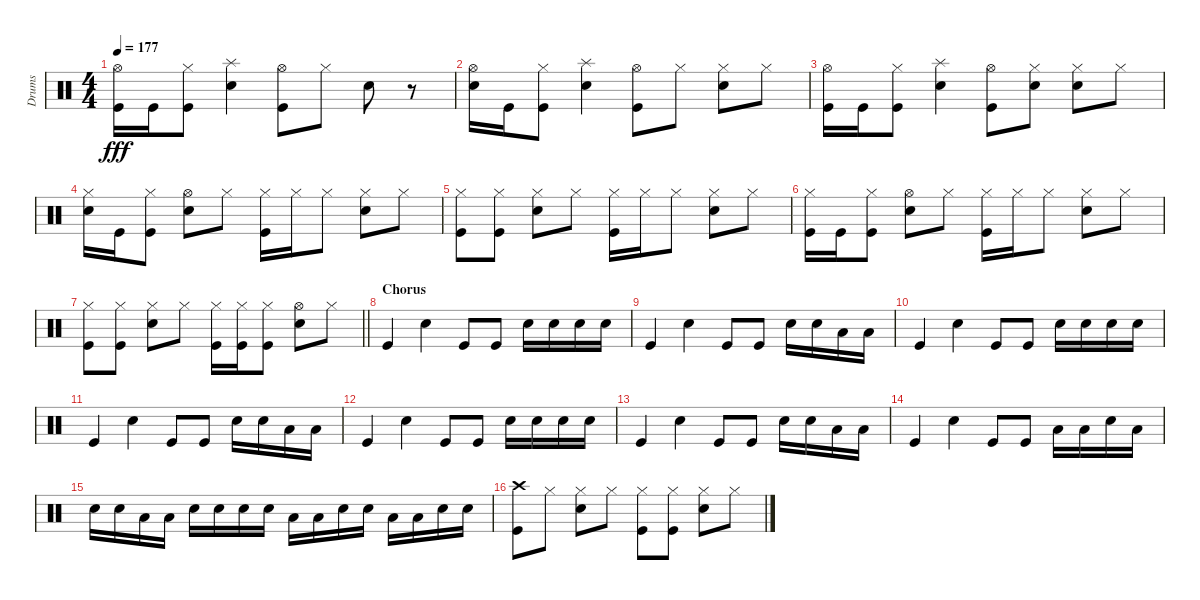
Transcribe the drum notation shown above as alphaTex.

\track ("Drums" "Drums") {instrument percussion}
\staff {score}
\articulation defaults
\ts (4 4)
\tempo 177
\clef neutral
\ks c
("Hi-Hat (open)" "Kick (hit)").16{dy fff} "Kick (hit)".16 ("Hi-Hat (closed)" "Kick (hit)").8 ("Splash (hit)" "Snare (hit) 2").4 ("Hi-Hat (open)" "Kick (hit)").8 "Hi-Hat (closed)".8 "Snare (hit) 2".8 r.8 |
("Hi-Hat (open)" "Snare (hit) 2").16 "Kick (hit)".16 ("Hi-Hat (closed)" "Kick (hit)").8 ("Splash (hit)" "Snare (hit) 2").4 ("Hi-Hat (open)" "Kick (hit)").8 "Hi-Hat (closed)".8 ("Hi-Hat (closed)" "Snare (hit) 2").8 "Hi-Hat (closed)".8 |
("Hi-Hat (open)" "Kick (hit)").16 "Kick (hit)".16 ("Hi-Hat (closed)" "Kick (hit)").8 ("Splash (hit)" "Snare (hit) 2").4 ("Hi-Hat (open)" "Kick (hit)").8 ("Hi-Hat (closed)" "Snare (hit) 2").8 ("Hi-Hat (closed)" "Snare (hit) 2").8 "Hi-Hat (closed)".8 |
("Hi-Hat (closed)" "Snare (hit) 2").16 "Kick (hit)".16 ("Hi-Hat (closed)" "Kick (hit)").8 ("Hi-Hat (open)" "Snare (hit) 2").8 "Hi-Hat (closed)".8 ("Hi-Hat (closed)" "Kick (hit)").16 "Hi-Hat (closed)".16 "Hi-Hat (closed)".8 ("Hi-Hat (closed)" "Snare (hit) 2").8 "Hi-Hat (closed)".8 |
("Hi-Hat (closed)" "Kick (hit)").8 ("Hi-Hat (closed)" "Kick (hit)").8 ("Hi-Hat (closed)" "Snare (hit) 2").8 "Hi-Hat (closed)".8 ("Hi-Hat (closed)" "Kick (hit)").16 "Hi-Hat (closed)".16 "Hi-Hat (closed)".8 ("Hi-Hat (closed)" "Snare (hit) 2").8 "Hi-Hat (closed)".8 |
("Hi-Hat (closed)" "Kick (hit)").16 "Kick (hit)".16 ("Hi-Hat (closed)" "Kick (hit)").8 ("Hi-Hat (open)" "Snare (hit) 2").8 "Hi-Hat (closed)".8 ("Hi-Hat (closed)" "Kick (hit)").16 "Hi-Hat (closed)".16 "Hi-Hat (closed)".8 ("Hi-Hat (closed)" "Snare (hit) 2").8 "Hi-Hat (closed)".8 |
\barLineRight lightlight
("Hi-Hat (closed)" "Kick (hit)").8 ("Hi-Hat (closed)" "Kick (hit)").8 ("Hi-Hat (closed)" "Snare (hit) 2").8 "Hi-Hat (closed)".8 ("Hi-Hat (closed)" "Kick (hit)").16 ("Hi-Hat (closed)" "Kick (hit)").16 ("Hi-Hat (closed)" "Kick (hit)").8 ("Hi-Hat (open)" "Snare (hit) 2").8 "Hi-Hat (closed)".8 |
\section ("" "Chorus")
"Kick (hit)".4 "Snare (hit) 2".4 "Kick (hit)".8 "Kick (hit)".8 "Snare (hit) 2".16 "Snare (hit) 2".16 "Snare (hit) 2".16 "Snare (hit) 2".16 |
"Kick (hit)".4 "Snare (hit) 2".4 "Kick (hit)".8 "Kick (hit)".8 "Snare (hit) 2".16 "Snare (hit) 2".16 "Low Tom (hit)".16 "Low Tom (hit)".16 |
"Kick (hit)".4 "Snare (hit) 2".4 "Kick (hit)".8 "Kick (hit)".8 "Snare (hit) 2".16 "Snare (hit) 2".16 "Snare (hit) 2".16 "Snare (hit) 2".16 |
"Kick (hit)".4 "Snare (hit) 2".4 "Kick (hit)".8 "Kick (hit)".8 "Snare (hit) 2".16 "Snare (hit) 2".16 "Low Tom (hit)".16 "Low Tom (hit)".16 |
"Kick (hit)".4 "Snare (hit) 2".4 "Kick (hit)".8 "Kick (hit)".8 "Snare (hit) 2".16 "Snare (hit) 2".16 "Snare (hit) 2".16 "Snare (hit) 2".16 |
"Kick (hit)".4 "Snare (hit) 2".4 "Kick (hit)".8 "Kick (hit)".8 "Snare (hit) 2".16 "Snare (hit) 2".16 "Low Tom (hit)".16 "Low Tom (hit)".16 |
"Kick (hit)".4 "Snare (hit) 2".4 "Kick (hit)".8 "Kick (hit)".8 "Low Tom (hit)".16 "Low Tom (hit)".16 "Snare (hit) 2".16 "Low Tom (hit)".16 |
"Snare (hit) 2".16 "Snare (hit) 2".16 "Low Tom (hit)".16 "Low Tom (hit)".16 "Snare (hit) 2".16 "Snare (hit) 2".16 "Snare (hit) 2".16 "Snare (hit) 2".16 "Low Tom (hit)".16 "Low Tom (hit)".16 "Snare (hit) 2".16 "Snare (hit) 2".16 "Low Tom (hit)".16 "Low Tom (hit)".16 "Snare (hit) 2".16 "Snare (hit) 2".16 |
("Crash high (hit)" "Kick (hit)").8 "Hi-Hat (closed)".8 ("Hi-Hat (closed)" "Snare (hit) 2").8 "Hi-Hat (closed)".8 ("Hi-Hat (closed)" "Kick (hit)").8 ("Hi-Hat (closed)" "Kick (hit)").8 ("Hi-Hat (closed)" "Snare (hit) 2").8 "Hi-Hat (closed)".8
